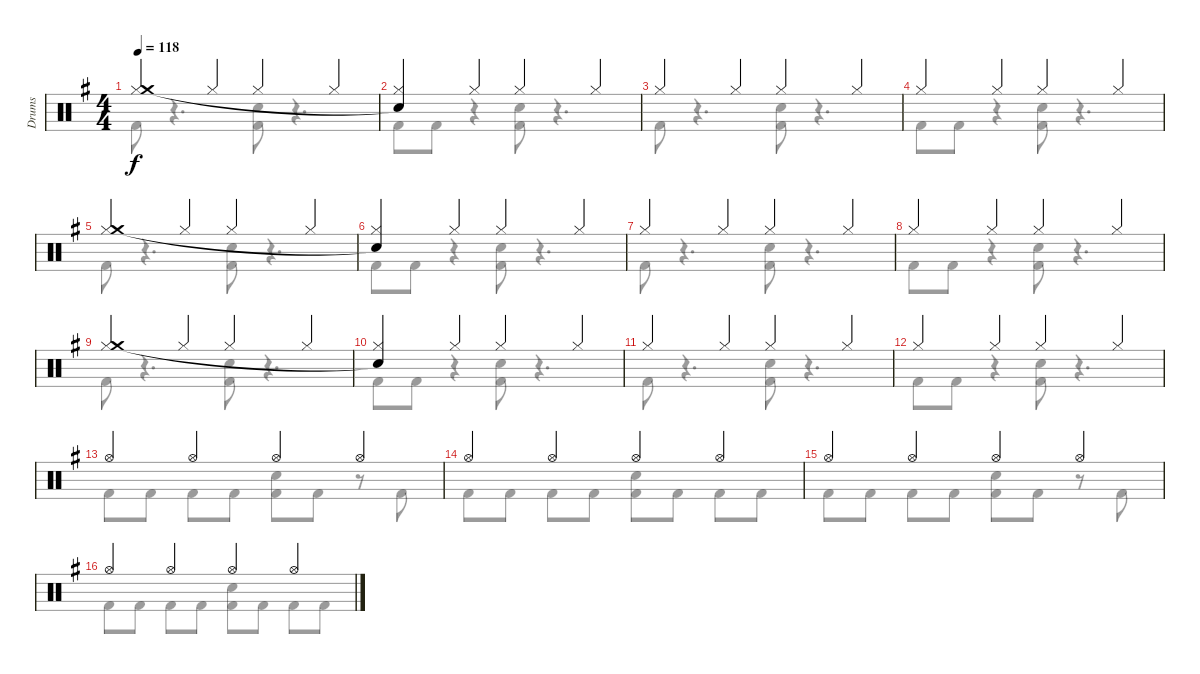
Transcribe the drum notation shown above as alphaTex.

\track ("Drums" "Drums") {instrument percussion}
\staff {score}
\articulation defaults
\voice
\ts (4 4)
\tempo 118
\clef neutral
\ks eminor
("Hi-Hat (closed)" "Crash medium (hit)").4{dy f} "Hi-Hat (closed)".4 "Hi-Hat (closed)".4 "Hi-Hat (closed)".4 |
("Hi-Hat (closed)" "Snare (hit)"{t}).4 "Hi-Hat (closed)".4 "Hi-Hat (closed)".4 "Hi-Hat (closed)".4 |
"Hi-Hat (closed)".4 "Hi-Hat (closed)".4 "Hi-Hat (closed)".4 "Hi-Hat (closed)".4 |
"Hi-Hat (closed)".4 "Hi-Hat (closed)".4 "Hi-Hat (closed)".4 "Hi-Hat (closed)".4 |
("Hi-Hat (closed)" "Crash medium (hit)").4 "Hi-Hat (closed)".4 "Hi-Hat (closed)".4 "Hi-Hat (closed)".4 |
("Hi-Hat (closed)" "Snare (hit)"{t}).4 "Hi-Hat (closed)".4 "Hi-Hat (closed)".4 "Hi-Hat (closed)".4 |
"Hi-Hat (closed)".4 "Hi-Hat (closed)".4 "Hi-Hat (closed)".4 "Hi-Hat (closed)".4 |
"Hi-Hat (closed)".4 "Hi-Hat (closed)".4 "Hi-Hat (closed)".4 "Hi-Hat (closed)".4 |
("Hi-Hat (closed)" "Crash medium (hit)").4 "Hi-Hat (closed)".4 "Hi-Hat (closed)".4 "Hi-Hat (closed)".4 |
("Hi-Hat (closed)" "Snare (hit)"{t}).4 "Hi-Hat (closed)".4 "Hi-Hat (closed)".4 "Hi-Hat (closed)".4 |
"Hi-Hat (closed)".4 "Hi-Hat (closed)".4 "Hi-Hat (closed)".4 "Hi-Hat (closed)".4 |
"Hi-Hat (closed)".4 "Hi-Hat (closed)".4 "Hi-Hat (closed)".4 "Hi-Hat (closed)".4 |
"Hi-Hat (open)".4{volume 16} "Hi-Hat (open)".4 "Hi-Hat (open)".4 "Hi-Hat (open)".4 |
"Hi-Hat (open)".4 "Hi-Hat (open)".4 "Hi-Hat (open)".4 "Hi-Hat (open)".4 |
"Hi-Hat (open)".4 "Hi-Hat (open)".4 "Hi-Hat (open)".4 "Hi-Hat (open)".4 |
"Hi-Hat (open)".4 "Hi-Hat (open)".4 "Hi-Hat (open)".4 "Hi-Hat (open)".4
\voice
\clef neutral
\ottava regular
\simile none
\ks eminor "Kick (hit) 2".8{dy f}
r.4{d} ("Kick (hit) 2" "Electric Snare (hit)").8 r.4{d} |
"Kick (hit) 2".8 "Kick (hit) 2".8 r.4 ("Kick (hit) 2" "Electric Snare (hit)").8 r.4{d} |
"Kick (hit) 2".8 r.4{d} ("Kick (hit) 2" "Electric Snare (hit)").8 r.4{d} |
"Kick (hit) 2".8 "Kick (hit) 2".8 r.4 ("Kick (hit) 2" "Electric Snare (hit)").8 r.4{d} |
"Kick (hit) 2".8 r.4{d} ("Kick (hit) 2" "Electric Snare (hit)").8 r.4{d} |
"Kick (hit) 2".8 "Kick (hit) 2".8 r.4 ("Kick (hit) 2" "Electric Snare (hit)").8 r.4{d} |
"Kick (hit) 2".8 r.4{d} ("Kick (hit) 2" "Electric Snare (hit)").8 r.4{d} |
"Kick (hit) 2".8 "Kick (hit) 2".8 r.4 ("Kick (hit) 2" "Electric Snare (hit)").8 r.4{d} |
"Kick (hit) 2".8 r.4{d} ("Kick (hit) 2" "Electric Snare (hit)").8 r.4{d} |
"Kick (hit) 2".8 "Kick (hit) 2".8 r.4 ("Kick (hit) 2" "Electric Snare (hit)").8 r.4{d} |
"Kick (hit) 2".8 r.4{d} ("Kick (hit) 2" "Electric Snare (hit)").8 r.4{d} |
"Kick (hit) 2".8 "Kick (hit) 2".8 r.4 ("Kick (hit) 2" "Electric Snare (hit)").8 r.4{d} |
"Kick (hit) 2".8 "Kick (hit) 2".8 "Kick (hit) 2".8 "Kick (hit) 2".8 ("Kick (hit) 2" "Electric Snare (hit)").8 "Kick (hit) 2".8 r.8 "Kick (hit) 2".8 |
"Kick (hit) 2".8 "Kick (hit) 2".8 "Kick (hit) 2".8 "Kick (hit) 2".8 ("Kick (hit) 2" "Electric Snare (hit)").8 "Kick (hit) 2".8 "Kick (hit) 2".8 "Kick (hit) 2".8 |
"Kick (hit) 2".8 "Kick (hit) 2".8 "Kick (hit) 2".8 "Kick (hit) 2".8 ("Kick (hit) 2" "Electric Snare (hit)").8 "Kick (hit) 2".8 r.8 "Kick (hit) 2".8 |
"Kick (hit) 2".8 "Kick (hit) 2".8 "Kick (hit) 2".8 "Kick (hit) 2".8 ("Kick (hit) 2" "Electric Snare (hit)").8 "Kick (hit) 2".8 "Kick (hit) 2".8 "Kick (hit) 2".8
